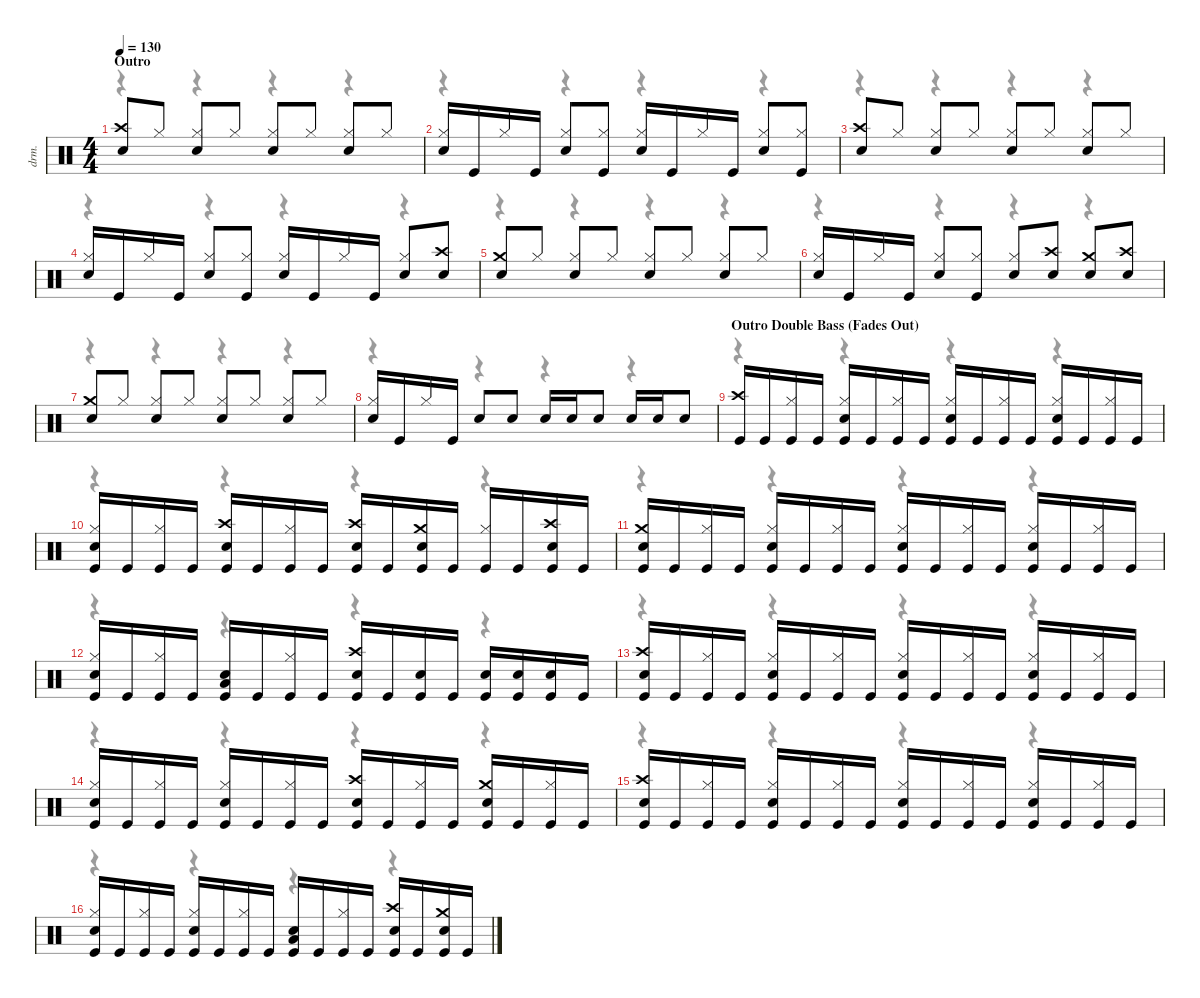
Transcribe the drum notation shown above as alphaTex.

\defaultSystemsLayout 4
\hideDynamics
\bracketExtendMode nobrackets
\track ("Lars Ulrich - Drums" "drm.") {instrument percussion}
\staff {score}
\articulation defaults
\voice
\ts (4 4)
\section ("" "Outro")
\tempo 130
\clef neutral
\ks c
("Crash high (hit)" "Snare (hit) 2").8{dy f} "Hi-Hat (closed)".8 ("Hi-Hat (closed)" "Snare (hit) 2").8 "Hi-Hat (closed)".8 ("Hi-Hat (closed)" "Snare (hit) 2").8 "Hi-Hat (closed)".8 ("Hi-Hat (closed)" "Snare (hit) 2").8 "Hi-Hat (closed)".8 |
("Hi-Hat (closed)" "Snare (hit) 2").16 "Kick (hit)".16 "Hi-Hat (closed)".16 "Kick (hit)".16 ("Hi-Hat (closed)" "Snare (hit) 2").8 ("Hi-Hat (closed)" "Kick (hit)").8 ("Hi-Hat (closed)" "Snare (hit) 2").16 "Kick (hit)".16 "Hi-Hat (closed)".16 "Kick (hit)".16 ("Hi-Hat (closed)" "Snare (hit) 2").8 ("Hi-Hat (closed)" "Kick (hit)").8 |
("Crash high (hit)" "Snare (hit) 2").8 "Hi-Hat (closed)".8 ("Hi-Hat (closed)" "Snare (hit) 2").8 "Hi-Hat (closed)".8 ("Hi-Hat (closed)" "Snare (hit) 2").8 "Hi-Hat (closed)".8 ("Hi-Hat (closed)" "Snare (hit) 2").8 "Hi-Hat (closed)".8 |
("Hi-Hat (closed)" "Snare (hit) 2").16 "Kick (hit)".16 "Hi-Hat (closed)".16 "Kick (hit)".16 ("Hi-Hat (closed)" "Snare (hit) 2").8 ("Hi-Hat (closed)" "Kick (hit)").8 ("Hi-Hat (closed)" "Snare (hit) 2").16 "Kick (hit)".16 "Hi-Hat (closed)".16 "Kick (hit)".16 ("Hi-Hat (closed)" "Snare (hit) 2").8 ("Crash high (hit)" "Snare (hit) 2").8 |
("Crash medium (hit)" "Snare (hit) 2").8 "Hi-Hat (closed)".8 ("Hi-Hat (closed)" "Snare (hit) 2").8 "Hi-Hat (closed)".8 ("Hi-Hat (closed)" "Snare (hit) 2").8 "Hi-Hat (closed)".8 ("Hi-Hat (closed)" "Snare (hit) 2").8 "Hi-Hat (closed)".8 |
("Hi-Hat (closed)" "Snare (hit) 2").16 "Kick (hit)".16 "Hi-Hat (closed)".16 "Kick (hit)".16 ("Hi-Hat (closed)" "Snare (hit) 2").8 ("Hi-Hat (closed)" "Kick (hit)").8 ("Hi-Hat (closed)" "Snare (hit) 2").8 ("Crash high (hit)" "Snare (hit) 2").8 ("Crash medium (hit)" "Snare (hit) 2").8 ("Crash high (hit)" "Snare (hit) 2").8 |
("Crash medium (hit)" "Snare (hit) 2").8 "Hi-Hat (closed)".8 ("Hi-Hat (closed)" "Snare (hit) 2").8 "Hi-Hat (closed)".8 ("Hi-Hat (closed)" "Snare (hit) 2").8 "Hi-Hat (closed)".8 ("Hi-Hat (closed)" "Snare (hit) 2").8 "Hi-Hat (closed)".8 |
("Hi-Hat (closed)" "Snare (hit) 2").16 "Kick (hit)".16 "Hi-Hat (closed)".16 "Kick (hit)".16 "Snare (hit) 2".8 "Snare (hit) 2".8 "Snare (hit) 2".16 "Snare (hit) 2".16 "Snare (hit) 2".8 "Snare (hit) 2".16 "Snare (hit) 2".16 "Snare (hit) 2".8 |
\section ("" "Outro Double Bass (Fades Out)")
("Crash high (hit)" "Kick (hit)").16 "Kick (hit)".16 ("Hi-Hat (closed)" "Kick (hit)").16 "Kick (hit)".16 ("Hi-Hat (closed)" "Snare (hit) 2" "Kick (hit)").16 "Kick (hit)".16 ("Hi-Hat (closed)" "Kick (hit)").16 "Kick (hit)".16 ("Hi-Hat (closed)" "Snare (hit) 2" "Kick (hit)").16 "Kick (hit)".16 ("Hi-Hat (closed)" "Kick (hit)").16 "Kick (hit)".16 ("Hi-Hat (closed)" "Snare (hit) 2" "Kick (hit)").16 "Kick (hit)".16 ("Hi-Hat (closed)" "Kick (hit)").16 "Kick (hit)".16 |
("Hi-Hat (closed)" "Snare (hit) 2" "Kick (hit)").16 "Kick (hit)".16 ("Hi-Hat (closed)" "Kick (hit)").16 "Kick (hit)".16 ("Crash high (hit)" "Snare (hit) 2" "Kick (hit)").16 "Kick (hit)".16 ("Hi-Hat (closed)" "Kick (hit)").16 "Kick (hit)".16 ("Crash high (hit)" "Snare (hit) 2" "Kick (hit)").16 "Kick (hit)".16 ("Crash medium (hit)" "Snare (hit) 2" "Kick (hit)").16 "Kick (hit)".16 ("Hi-Hat (closed)" "Kick (hit)").16 "Kick (hit)".16 ("Crash high (hit)" "Snare (hit) 2" "Kick (hit)").16 "Kick (hit)".16 |
("Crash medium (hit)" "Snare (hit) 2" "Kick (hit)").16 "Kick (hit)".16 ("Hi-Hat (closed)" "Kick (hit)").16 "Kick (hit)".16 ("Hi-Hat (closed)" "Snare (hit) 2" "Kick (hit)").16 "Kick (hit)".16 ("Hi-Hat (closed)" "Kick (hit)").16 "Kick (hit)".16 ("Hi-Hat (closed)" "Snare (hit) 2" "Kick (hit)").16 "Kick (hit)".16 ("Hi-Hat (closed)" "Kick (hit)").16 "Kick (hit)".16 ("Hi-Hat (closed)" "Snare (hit) 2" "Kick (hit)").16 "Kick (hit)".16 ("Hi-Hat (closed)" "Kick (hit)").16 "Kick (hit)".16 |
("Hi-Hat (closed)" "Snare (hit) 2" "Kick (hit)").16 "Kick (hit)".16 ("Hi-Hat (closed)" "Kick (hit)").16 "Kick (hit)".16 ("Low Tom (hit)" "Snare (hit) 2" "Kick (hit)").16 "Kick (hit)".16 ("Hi-Hat (closed)" "Kick (hit)").16 "Kick (hit)".16 ("Crash high (hit)" "Snare (hit) 2" "Kick (hit)").16 "Kick (hit)".16 ("Snare (hit) 2" "Kick (hit)").16 "Kick (hit)".16 ("Snare (hit) 2" "Kick (hit)").16 ("Snare (hit) 2" "Kick (hit)").16 ("Snare (hit) 2" "Kick (hit)").16 "Kick (hit)".16 |
("Crash high (hit)" "Snare (hit) 2" "Kick (hit)").16 "Kick (hit)".16 ("Hi-Hat (closed)" "Kick (hit)").16 "Kick (hit)".16 ("Hi-Hat (closed)" "Snare (hit) 2" "Kick (hit)").16 "Kick (hit)".16 ("Hi-Hat (closed)" "Kick (hit)").16 "Kick (hit)".16 ("Hi-Hat (closed)" "Snare (hit) 2" "Kick (hit)").16 "Kick (hit)".16 ("Hi-Hat (closed)" "Kick (hit)").16 "Kick (hit)".16 ("Hi-Hat (closed)" "Snare (hit) 2" "Kick (hit)").16 "Kick (hit)".16 ("Hi-Hat (closed)" "Kick (hit)").16 "Kick (hit)".16 |
("Hi-Hat (closed)" "Snare (hit) 2" "Kick (hit)").16 "Kick (hit)".16 ("Hi-Hat (closed)" "Kick (hit)").16 "Kick (hit)".16 ("Hi-Hat (closed)" "Snare (hit) 2" "Kick (hit)").16 "Kick (hit)".16 ("Hi-Hat (closed)" "Kick (hit)").16 "Kick (hit)".16 ("Crash high (hit)" "Snare (hit) 2" "Kick (hit)").16 "Kick (hit)".16 ("Hi-Hat (closed)" "Kick (hit)").16 "Kick (hit)".16 ("Crash medium (hit)" "Snare (hit) 2" "Kick (hit)").16 "Kick (hit)".16 ("Hi-Hat (closed)" "Kick (hit)").16 "Kick (hit)".16 |
("Crash high (hit)" "Snare (hit) 2" "Kick (hit)").16 "Kick (hit)".16 ("Hi-Hat (closed)" "Kick (hit)").16 "Kick (hit)".16 ("Hi-Hat (closed)" "Snare (hit) 2" "Kick (hit)").16 "Kick (hit)".16 ("Hi-Hat (closed)" "Kick (hit)").16 "Kick (hit)".16 ("Hi-Hat (closed)" "Snare (hit) 2" "Kick (hit)").16 "Kick (hit)".16 ("Hi-Hat (closed)" "Kick (hit)").16 "Kick (hit)".16 ("Hi-Hat (closed)" "Snare (hit) 2" "Kick (hit)").16 "Kick (hit)".16 ("Hi-Hat (closed)" "Kick (hit)").16 "Kick (hit)".16 |
("Hi-Hat (closed)" "Snare (hit) 2" "Kick (hit)").16 "Kick (hit)".16 ("Hi-Hat (closed)" "Kick (hit)").16 "Kick (hit)".16 ("Hi-Hat (closed)" "Snare (hit) 2" "Kick (hit)").16 "Kick (hit)".16 ("Hi-Hat (closed)" "Kick (hit)").16 "Kick (hit)".16 ("Low Tom (hit)" "Snare (hit) 2" "Kick (hit)").16 "Kick (hit)".16 ("Hi-Hat (closed)" "Kick (hit)").16 "Kick (hit)".16 ("Crash high (hit)" "Snare (hit) 2" "Kick (hit)").16 "Kick (hit)".16 ("Crash medium (hit)" "Snare (hit) 2" "Kick (hit)").16 "Kick (hit)".16
\voice
\clef neutral
\ottava regular
\simile none
\ks c
r.4{dy mf} r.4 r.4 r.4 |
r.4 r.4 r.4 r.4 |
r.4 r.4 r.4 r.4 |
r.4 r.4 r.4 r.4 |
r.4 r.4 r.4 r.4 |
r.4 r.4 r.4 r.4 |
r.4 r.4 r.4 r.4 |
r.4 r.4 r.4 r.4 |
r.4 r.4 r.4 r.4 |
r.4 r.4 r.4 r.4 |
r.4 r.4 r.4 r.4 |
r.4 r.4 r.4 r.4 |
r.4 r.4 r.4 r.4 |
r.4 r.4 r.4 r.4 |
r.4 r.4 r.4 r.4 |
r.4 r.4 r.4 r.4
